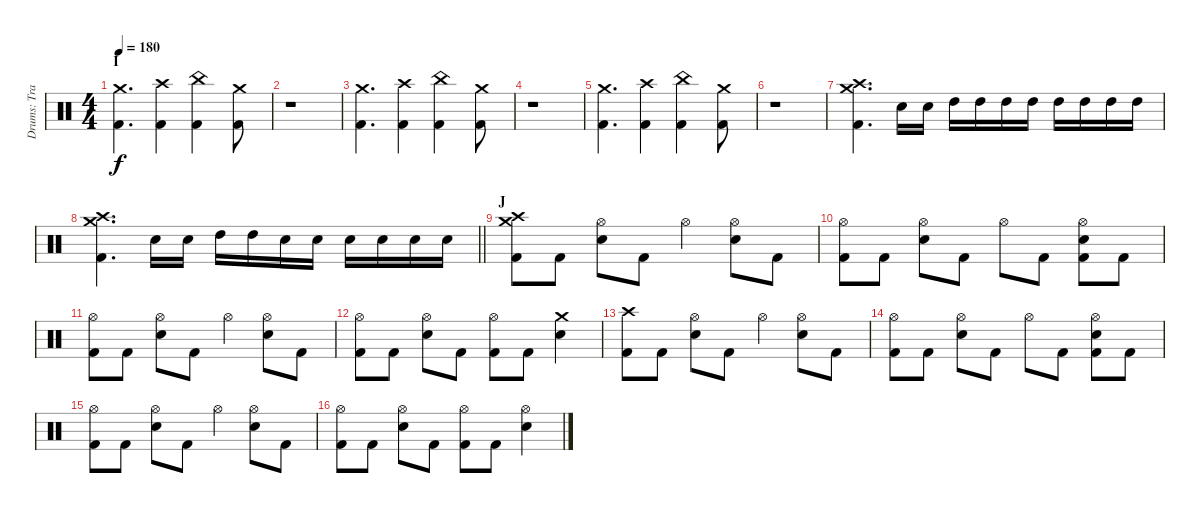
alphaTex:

\track ("Drums: Travis Clarke" "Drums: Tra") {instrument percussion}
\staff {score}
\articulation defaults
\ts (4 4)
\section ("" "I")
\tempo 180
\clef neutral
\ks c
("Kick (hit) 2" "Crash medium (hit)").4{d dy f} ("Kick (hit) 2" "Crash high (hit)").4 ("Kick (hit) 2" "China (hit)").4 ("Kick (hit) 2" "Crash medium (hit)").8 |
r.1 |
("Kick (hit) 2" "Crash medium (hit)").4{d} ("Kick (hit) 2" "Crash high (hit)").4 ("Kick (hit) 2" "China (hit)").4 ("Kick (hit) 2" "Crash medium (hit)").8 |
r.1 |
("Kick (hit) 2" "Crash medium (hit)").4{d} ("Kick (hit) 2" "Crash high (hit)").4 ("Kick (hit) 2" "China (hit)").4 ("Kick (hit) 2" "Crash medium (hit)").8 |
r.1 |
("Kick (hit) 2" "Crash high (hit)" "Crash medium (hit)").4{d} "Snare (hit) 2".16 "Snare (hit) 2".16 "High Tom (hit)".16 "High Tom (hit)".16 "High Tom (hit)".16 "High Tom (hit)".16 "High Tom (hit)".16 "High Tom (hit)".16 "High Tom (hit)".16 "High Tom (hit)".16 |
\barLineRight lightlight
("Kick (hit) 2" "Crash high (hit)" "Crash medium (hit)").4{d} "Snare (hit) 2".16 "Snare (hit) 2".16 "High Tom (hit)".16 "High Tom (hit)".16 "Snare (hit) 2".16 "Snare (hit) 2".16 "Snare (hit) 2".16 "Snare (hit) 2".16 "Snare (hit) 2".16 "Snare (hit) 2".16 |
\section ("" "J")
("Kick (hit) 2" "Crash high (hit)" "Crash medium (hit)").8 "Kick (hit) 2".8 ("Snare (hit) 2" "Hi-Hat (open)").8 "Kick (hit) 2".8 "Hi-Hat (open)".4 ("Snare (hit) 2" "Hi-Hat (open)").8 "Kick (hit) 2".8 |
("Kick (hit) 2" "Hi-Hat (open)").8 "Kick (hit) 2".8 ("Snare (hit) 2" "Hi-Hat (open)").8 "Kick (hit) 2".8 "Hi-Hat (open)".8 "Kick (hit) 2".8 ("Kick (hit) 2" "Snare (hit) 2" "Hi-Hat (open)").8 "Kick (hit) 2".8 |
("Kick (hit) 2" "Hi-Hat (open)").8 "Kick (hit) 2".8 ("Snare (hit) 2" "Hi-Hat (open)").8 "Kick (hit) 2".8 "Hi-Hat (open)".4 ("Snare (hit) 2" "Hi-Hat (open)").8 "Kick (hit) 2".8 |
("Kick (hit) 2" "Hi-Hat (open)").8 "Kick (hit) 2".8 ("Snare (hit) 2" "Hi-Hat (open)").8 "Kick (hit) 2".8 ("Kick (hit) 2" "Hi-Hat (open)").8 "Kick (hit) 2".8 ("Snare (hit) 2" "Crash medium (hit)").4 |
("Kick (hit) 2" "Crash high (hit)").8 "Kick (hit) 2".8 ("Snare (hit) 2" "Hi-Hat (open)").8 "Kick (hit) 2".8 "Hi-Hat (open)".4 ("Snare (hit) 2" "Hi-Hat (open)").8 "Kick (hit) 2".8 |
("Kick (hit) 2" "Hi-Hat (open)").8 "Kick (hit) 2".8 ("Snare (hit) 2" "Hi-Hat (open)").8 "Kick (hit) 2".8 "Hi-Hat (open)".8 "Kick (hit) 2".8 ("Kick (hit) 2" "Snare (hit) 2" "Hi-Hat (open)").8 "Kick (hit) 2".8 |
("Kick (hit) 2" "Hi-Hat (open)").8 "Kick (hit) 2".8 ("Snare (hit) 2" "Hi-Hat (open)").8 "Kick (hit) 2".8 "Hi-Hat (open)".4 ("Snare (hit) 2" "Hi-Hat (open)").8 "Kick (hit) 2".8 |
("Kick (hit) 2" "Hi-Hat (open)").8 "Kick (hit) 2".8 ("Snare (hit) 2" "Hi-Hat (open)").8 "Kick (hit) 2".8 ("Kick (hit) 2" "Hi-Hat (open)").8 "Kick (hit) 2".8 ("Snare (hit) 2" "Hi-Hat (open)").4
